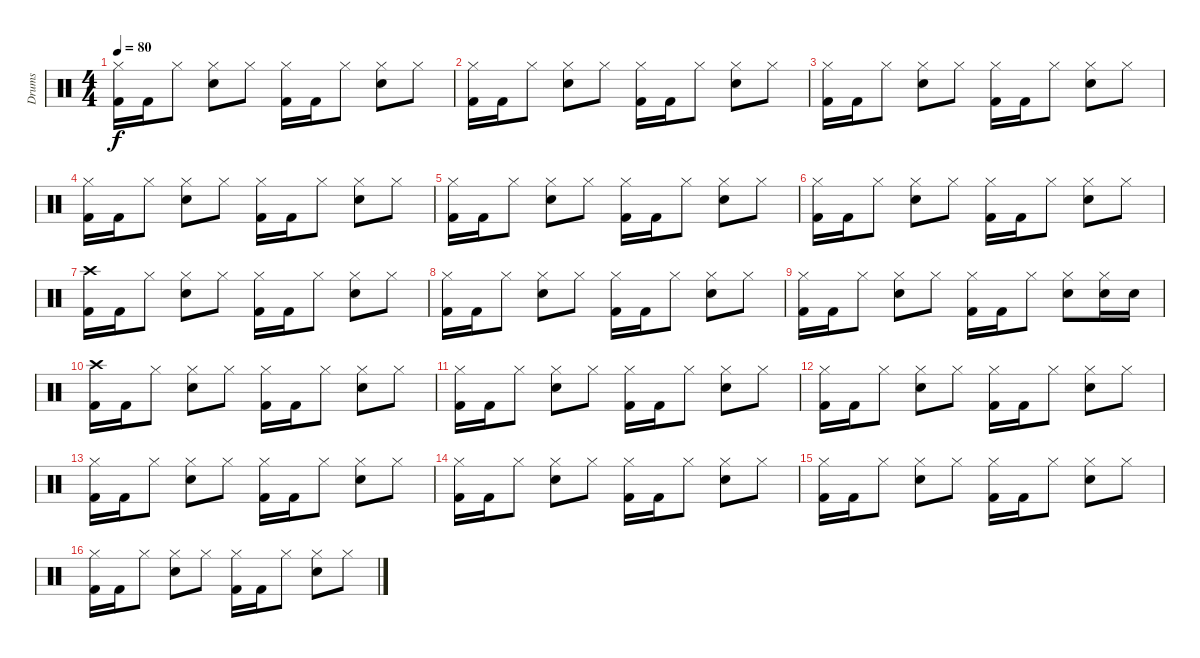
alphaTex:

\track ("Drums         " "Drums     ") {instrument percussion}
\staff {score}
\articulation defaults
\ts (4 4)
\tempo 80
\clef neutral
\ks c
("Kick (hit) 2" "Hi-Hat (closed)").16{dy f} "Kick (hit) 2".16 "Hi-Hat (closed)".8 ("Snare (hit) 2" "Hi-Hat (closed)").8 "Hi-Hat (closed)".8 ("Kick (hit) 2" "Hi-Hat (closed)").16 "Kick (hit) 2".16 "Hi-Hat (closed)".8 ("Snare (hit) 2" "Hi-Hat (closed)").8 "Hi-Hat (closed)".8 |
("Kick (hit) 2" "Hi-Hat (closed)").16 "Kick (hit) 2".16 "Hi-Hat (closed)".8 ("Snare (hit) 2" "Hi-Hat (closed)").8 "Hi-Hat (closed)".8 ("Kick (hit) 2" "Hi-Hat (closed)").16 "Kick (hit) 2".16 "Hi-Hat (closed)".8 ("Snare (hit) 2" "Hi-Hat (closed)").8 "Hi-Hat (closed)".8 |
("Kick (hit) 2" "Hi-Hat (closed)").16 "Kick (hit) 2".16 "Hi-Hat (closed)".8 ("Snare (hit) 2" "Hi-Hat (closed)").8 "Hi-Hat (closed)".8 ("Kick (hit) 2" "Hi-Hat (closed)").16 "Kick (hit) 2".16 "Hi-Hat (closed)".8 ("Snare (hit) 2" "Hi-Hat (closed)").8 "Hi-Hat (closed)".8 |
("Kick (hit) 2" "Hi-Hat (closed)").16 "Kick (hit) 2".16 "Hi-Hat (closed)".8 ("Snare (hit) 2" "Hi-Hat (closed)").8 "Hi-Hat (closed)".8 ("Kick (hit) 2" "Hi-Hat (closed)").16 "Kick (hit) 2".16 "Hi-Hat (closed)".8 ("Snare (hit) 2" "Hi-Hat (closed)").8 "Hi-Hat (closed)".8 |
("Kick (hit) 2" "Hi-Hat (closed)").16 "Kick (hit) 2".16 "Hi-Hat (closed)".8 ("Snare (hit) 2" "Hi-Hat (closed)").8 "Hi-Hat (closed)".8 ("Kick (hit) 2" "Hi-Hat (closed)").16 "Kick (hit) 2".16 "Hi-Hat (closed)".8 ("Snare (hit) 2" "Hi-Hat (closed)").8 "Hi-Hat (closed)".8 |
("Kick (hit) 2" "Hi-Hat (closed)").16 "Kick (hit) 2".16 "Hi-Hat (closed)".8 ("Snare (hit) 2" "Hi-Hat (closed)").8 "Hi-Hat (closed)".8 ("Kick (hit) 2" "Hi-Hat (closed)").16 "Kick (hit) 2".16 "Hi-Hat (closed)".8 ("Snare (hit) 2" "Hi-Hat (closed)").8 "Hi-Hat (closed)".8 |
("Kick (hit) 2" "Crash high (hit)").16 "Kick (hit) 2".16 "Hi-Hat (closed)".8 ("Snare (hit) 2" "Hi-Hat (closed)").8 "Hi-Hat (closed)".8 ("Kick (hit) 2" "Hi-Hat (closed)").16 "Kick (hit) 2".16 "Hi-Hat (closed)".8 ("Snare (hit) 2" "Hi-Hat (closed)").8 "Hi-Hat (closed)".8 |
("Kick (hit) 2" "Hi-Hat (closed)").16 "Kick (hit) 2".16 "Hi-Hat (closed)".8 ("Snare (hit) 2" "Hi-Hat (closed)").8 "Hi-Hat (closed)".8 ("Kick (hit) 2" "Hi-Hat (closed)").16 "Kick (hit) 2".16 "Hi-Hat (closed)".8 ("Snare (hit) 2" "Hi-Hat (closed)").8 "Hi-Hat (closed)".8 |
("Kick (hit) 2" "Hi-Hat (closed)").16 "Kick (hit) 2".16 "Hi-Hat (closed)".8 ("Snare (hit) 2" "Hi-Hat (closed)").8 "Hi-Hat (closed)".8 ("Kick (hit) 2" "Hi-Hat (closed)").16 "Kick (hit) 2".16 "Hi-Hat (closed)".8 ("Snare (hit) 2" "Hi-Hat (closed)").8 ("Snare (hit) 2" "Hi-Hat (closed)").16 "Snare (hit) 2".16 |
("Kick (hit) 2" "Crash high (hit)").16 "Kick (hit) 2".16 "Hi-Hat (closed)".8 ("Snare (hit) 2" "Hi-Hat (closed)").8 "Hi-Hat (closed)".8 ("Kick (hit) 2" "Hi-Hat (closed)").16 "Kick (hit) 2".16 "Hi-Hat (closed)".8 ("Snare (hit) 2" "Hi-Hat (closed)").8 "Hi-Hat (closed)".8 |
("Kick (hit) 2" "Hi-Hat (closed)").16 "Kick (hit) 2".16 "Hi-Hat (closed)".8 ("Snare (hit) 2" "Hi-Hat (closed)").8 "Hi-Hat (closed)".8 ("Kick (hit) 2" "Hi-Hat (closed)").16 "Kick (hit) 2".16 "Hi-Hat (closed)".8 ("Snare (hit) 2" "Hi-Hat (closed)").8 "Hi-Hat (closed)".8 |
("Kick (hit) 2" "Hi-Hat (closed)").16 "Kick (hit) 2".16 "Hi-Hat (closed)".8 ("Snare (hit) 2" "Hi-Hat (closed)").8 "Hi-Hat (closed)".8 ("Kick (hit) 2" "Hi-Hat (closed)").16 "Kick (hit) 2".16 "Hi-Hat (closed)".8 ("Snare (hit) 2" "Hi-Hat (closed)").8 "Hi-Hat (closed)".8 |
("Kick (hit) 2" "Hi-Hat (closed)").16 "Kick (hit) 2".16 "Hi-Hat (closed)".8 ("Snare (hit) 2" "Hi-Hat (closed)").8 "Hi-Hat (closed)".8 ("Kick (hit) 2" "Hi-Hat (closed)").16 "Kick (hit) 2".16 "Hi-Hat (closed)".8 ("Snare (hit) 2" "Hi-Hat (closed)").8 "Hi-Hat (closed)".8 |
("Kick (hit) 2" "Hi-Hat (closed)").16 "Kick (hit) 2".16 "Hi-Hat (closed)".8 ("Snare (hit) 2" "Hi-Hat (closed)").8 "Hi-Hat (closed)".8 ("Kick (hit) 2" "Hi-Hat (closed)").16 "Kick (hit) 2".16 "Hi-Hat (closed)".8 ("Snare (hit) 2" "Hi-Hat (closed)").8 "Hi-Hat (closed)".8 |
("Kick (hit) 2" "Hi-Hat (closed)").16 "Kick (hit) 2".16 "Hi-Hat (closed)".8 ("Snare (hit) 2" "Hi-Hat (closed)").8 "Hi-Hat (closed)".8 ("Kick (hit) 2" "Hi-Hat (closed)").16 "Kick (hit) 2".16 "Hi-Hat (closed)".8 ("Snare (hit) 2" "Hi-Hat (closed)").8 "Hi-Hat (closed)".8 |
("Kick (hit) 2" "Hi-Hat (closed)").16 "Kick (hit) 2".16 "Hi-Hat (closed)".8 ("Snare (hit) 2" "Hi-Hat (closed)").8 "Hi-Hat (closed)".8 ("Kick (hit) 2" "Hi-Hat (closed)").16 "Kick (hit) 2".16 "Hi-Hat (closed)".8 ("Snare (hit) 2" "Hi-Hat (closed)").8 "Hi-Hat (closed)".8
